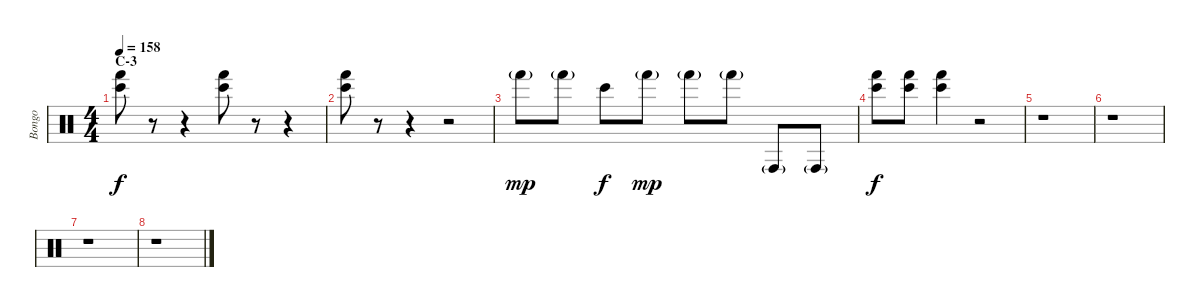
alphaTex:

\track ("Bongo" "Bongo") {instrument percussion}
\staff {score}
\articulation defaults
\ts (4 4)
\section ("" "C-3")
\tempo 158
\clef neutral
\ks c
("Bongo High (hit)" "Hand (hit)").8{dy f} r.8 r.4 ("Bongo High (hit)" "Hand (hit)").8 r.8 r.4 |
("Bongo High (hit)" "Hand (hit)").8 r.8 r.4 r.2 |
"Hand (hit)"{g}.8{dy mp} "Hand (hit)"{g}.8 "Bongo High (hit)".8{dy f} "Hand (hit)"{g}.8{dy mp} "Hand (hit)"{g}.8 "Hand (hit)"{g}.8 "Conga high (hit)"{g}.8 "Conga high (hit)"{g}.8 |
("Bongo High (hit)" "Hand (hit)").8{dy f} ("Bongo High (hit)" "Hand (hit)").8 ("Bongo High (hit)" "Hand (hit)").4 r.2 |
r.1 |
r.1 |
r.1 |
r.1
